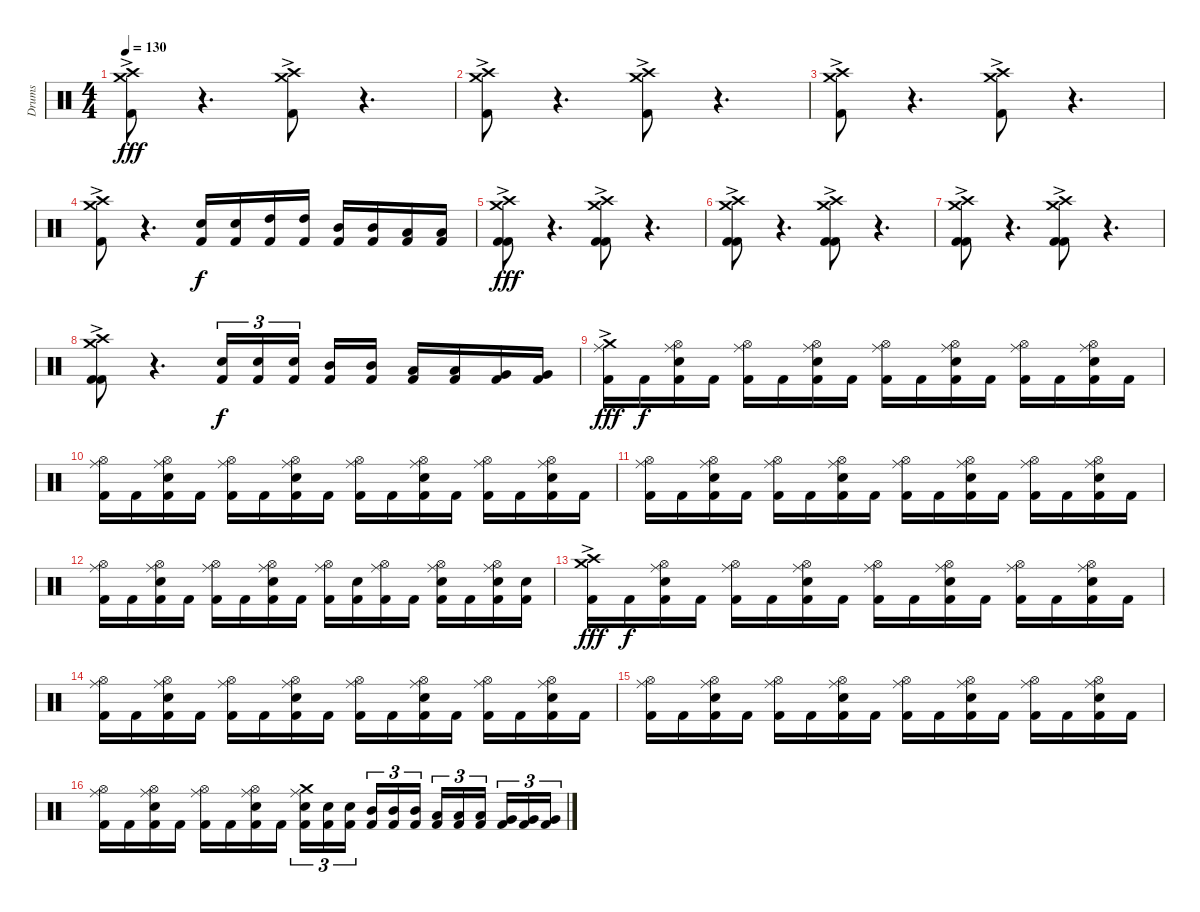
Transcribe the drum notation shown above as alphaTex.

\track ("Drums" "Drums") {instrument percussion}
\staff {score}
\articulation defaults
\ts (4 4)
\tempo 130
\clef neutral
\ks c
("Crash medium (hit)"{ac} "Crash high (hit)" "Kick (hit) 2").8{dy fff volume 15} r.4{d volume 15} ("Crash medium (hit)"{ac} "Crash high (hit)" "Kick (hit) 2").8{volume 15} r.4{d} |
("Crash medium (hit)"{ac} "Crash high (hit)" "Kick (hit) 2").8{volume 15} r.4{d volume 15} ("Crash medium (hit)"{ac} "Crash high (hit)" "Kick (hit) 2").8{volume 15} r.4{d} |
("Crash medium (hit)"{ac} "Crash high (hit)" "Kick (hit) 2").8{volume 15} r.4{d volume 15} ("Crash medium (hit)"{ac} "Crash high (hit)" "Kick (hit) 2").8{volume 15} r.4{d} |
("Crash medium (hit)"{ac} "Crash high (hit)"{ac} "Kick (hit) 2").8{volume 15} r.4{d volume 15} ("Snare (hit) 2" "Kick (hit) 2").16{dy f volume 15} ("Snare (hit) 2" "Kick (hit) 2").16 ("High Tom (hit)" "Kick (hit) 2").16 ("High Tom (hit)" "Kick (hit) 2").16 ("Mid Tom (hit)" "Kick (hit) 2").16 ("Mid Tom (hit)" "Kick (hit) 2").16 ("Low Tom (hit)" "Kick (hit) 2").16 ("Low Tom (hit)" "Kick (hit) 2").16 |
("Crash medium (hit)"{ac} "Crash high (hit)" "Kick (hit) 2" "Kick (hit) 2").8{dy fff volume 15} r.4{d volume 15} ("Crash medium (hit)"{ac} "Crash high (hit)" "Kick (hit) 2" "Kick (hit) 2").8{volume 15} r.4{d} |
("Crash medium (hit)"{ac} "Crash high (hit)" "Kick (hit) 2" "Kick (hit) 2").8{volume 15} r.4{d volume 15} ("Crash medium (hit)"{ac} "Crash high (hit)" "Kick (hit) 2" "Kick (hit) 2").8{volume 15} r.4{d} |
("Crash medium (hit)"{ac} "Crash high (hit)" "Kick (hit) 2" "Kick (hit) 2").8{volume 15} r.4{d volume 15} ("Crash medium (hit)"{ac} "Crash high (hit)" "Kick (hit) 2" "Kick (hit) 2").8{volume 15} r.4{d} |
("Crash medium (hit)"{ac} "Crash high (hit)" "Kick (hit) 2" "Kick (hit) 2").8{volume 15} r.4{d volume 15} ("Snare (hit) 2" "Kick (hit) 2").16{tu (3 2) dy f volume 15} ("Snare (hit) 2" "Kick (hit) 2").16{tu (3 2)} ("Snare (hit) 2" "Kick (hit) 2").16{tu (3 2)} ("Mid Tom (hit)" "Kick (hit) 2").16 ("Mid Tom (hit)" "Kick (hit) 2").16 ("Low Tom (hit)" "Kick (hit) 2").16 ("Low Tom (hit)" "Kick (hit) 2").16 ("Very Low Tom (hit)" "Kick (hit) 2").16 ("Very Low Tom (hit)" "Kick (hit) 2").16 |
("Crash medium (hit)"{ac} "Ride (middle)" "Kick (hit) 2").16{dy fff} "Kick (hit) 2".16{dy f} ("Hi-Hat (open)" "Ride (middle)" "Snare (hit) 2" "Kick (hit) 2").16 "Kick (hit) 2".16 ("Hi-Hat (open)" "Ride (middle)" "Kick (hit) 2").16 "Kick (hit) 2".16 ("Hi-Hat (open)" "Ride (middle)" "Snare (hit) 2" "Kick (hit) 2").16 "Kick (hit) 2".16 ("Hi-Hat (open)" "Ride (middle)" "Kick (hit) 2").16 "Kick (hit) 2".16 ("Hi-Hat (open)" "Ride (middle)" "Snare (hit) 2" "Kick (hit) 2").16 "Kick (hit) 2".16 ("Hi-Hat (open)" "Ride (middle)" "Kick (hit) 2").16 "Kick (hit) 2".16 ("Hi-Hat (open)" "Ride (middle)" "Snare (hit) 2" "Kick (hit) 2").16 "Kick (hit) 2".16 |
("Hi-Hat (open)" "Ride (middle)" "Kick (hit) 2").16 "Kick (hit) 2".16 ("Hi-Hat (open)" "Ride (middle)" "Snare (hit) 2" "Kick (hit) 2").16 "Kick (hit) 2".16 ("Hi-Hat (open)" "Ride (middle)" "Kick (hit) 2").16 "Kick (hit) 2".16 ("Hi-Hat (open)" "Ride (middle)" "Snare (hit) 2" "Kick (hit) 2").16 "Kick (hit) 2".16 ("Hi-Hat (open)" "Ride (middle)" "Kick (hit) 2").16 "Kick (hit) 2".16 ("Hi-Hat (open)" "Ride (middle)" "Snare (hit) 2" "Kick (hit) 2").16 "Kick (hit) 2".16 ("Hi-Hat (open)" "Ride (middle)" "Kick (hit) 2").16 "Kick (hit) 2".16 ("Hi-Hat (open)" "Ride (middle)" "Snare (hit) 2" "Kick (hit) 2").16 "Kick (hit) 2".16 |
("Hi-Hat (open)" "Ride (middle)" "Kick (hit) 2").16 "Kick (hit) 2".16 ("Hi-Hat (open)" "Ride (middle)" "Snare (hit) 2" "Kick (hit) 2").16 "Kick (hit) 2".16 ("Hi-Hat (open)" "Ride (middle)" "Kick (hit) 2").16 "Kick (hit) 2".16 ("Hi-Hat (open)" "Ride (middle)" "Snare (hit) 2" "Kick (hit) 2").16 "Kick (hit) 2".16 ("Hi-Hat (open)" "Ride (middle)" "Kick (hit) 2").16 "Kick (hit) 2".16 ("Hi-Hat (open)" "Ride (middle)" "Snare (hit) 2" "Kick (hit) 2").16 "Kick (hit) 2".16 ("Hi-Hat (open)" "Ride (middle)" "Kick (hit) 2").16 "Kick (hit) 2".16 ("Hi-Hat (open)" "Ride (middle)" "Snare (hit) 2" "Kick (hit) 2").16 "Kick (hit) 2".16 |
("Hi-Hat (open)" "Ride (middle)" "Kick (hit) 2").16 "Kick (hit) 2".16 ("Hi-Hat (open)" "Ride (middle)" "Snare (hit) 2" "Kick (hit) 2").16 "Kick (hit) 2".16 ("Hi-Hat (open)" "Ride (middle)" "Kick (hit) 2").16 "Kick (hit) 2".16 ("Hi-Hat (open)" "Ride (middle)" "Snare (hit) 2" "Kick (hit) 2").16 "Kick (hit) 2".16 ("Hi-Hat (open)" "Ride (middle)" "Kick (hit) 2").16 ("Snare (hit) 2" "Kick (hit) 2").16 ("Hi-Hat (open)" "Ride (middle)" "Kick (hit) 2").16 "Kick (hit) 2".16 ("Hi-Hat (open)" "Ride (middle)" "Snare (hit) 2" "Kick (hit) 2").16 "Kick (hit) 2".16 ("Hi-Hat (open)" "Ride (middle)" "Snare (hit) 2" "Kick (hit) 2").16 ("Snare (hit) 2" "Kick (hit) 2").16 |
("Crash medium (hit)"{ac} "Crash high (hit)"{ac} "Kick (hit) 2").16{dy fff} "Kick (hit) 2".16{dy f} ("Hi-Hat (open)" "Ride (middle)" "Snare (hit) 2" "Kick (hit) 2").16 "Kick (hit) 2".16 ("Hi-Hat (open)" "Ride (middle)" "Kick (hit) 2").16 "Kick (hit) 2".16 ("Hi-Hat (open)" "Ride (middle)" "Snare (hit) 2" "Kick (hit) 2").16 "Kick (hit) 2".16 ("Hi-Hat (open)" "Ride (middle)" "Kick (hit) 2").16 "Kick (hit) 2".16 ("Hi-Hat (open)" "Ride (middle)" "Snare (hit) 2" "Kick (hit) 2").16 "Kick (hit) 2".16 ("Hi-Hat (open)" "Ride (middle)" "Kick (hit) 2").16 "Kick (hit) 2".16 ("Hi-Hat (open)" "Ride (middle)" "Snare (hit) 2" "Kick (hit) 2").16 "Kick (hit) 2".16 |
("Hi-Hat (open)" "Ride (middle)" "Kick (hit) 2").16 "Kick (hit) 2".16 ("Hi-Hat (open)" "Ride (middle)" "Snare (hit) 2" "Kick (hit) 2").16 "Kick (hit) 2".16 ("Hi-Hat (open)" "Ride (middle)" "Kick (hit) 2").16 "Kick (hit) 2".16 ("Hi-Hat (open)" "Ride (middle)" "Snare (hit) 2" "Kick (hit) 2").16 "Kick (hit) 2".16 ("Hi-Hat (open)" "Ride (middle)" "Kick (hit) 2").16 "Kick (hit) 2".16 ("Hi-Hat (open)" "Ride (middle)" "Snare (hit) 2" "Kick (hit) 2").16 "Kick (hit) 2".16 ("Hi-Hat (open)" "Ride (middle)" "Kick (hit) 2").16 "Kick (hit) 2".16 ("Hi-Hat (open)" "Ride (middle)" "Snare (hit) 2" "Kick (hit) 2").16 "Kick (hit) 2".16 |
("Hi-Hat (open)" "Ride (middle)" "Kick (hit) 2").16 "Kick (hit) 2".16 ("Hi-Hat (open)" "Ride (middle)" "Snare (hit) 2" "Kick (hit) 2").16 "Kick (hit) 2".16 ("Hi-Hat (open)" "Ride (middle)" "Kick (hit) 2").16 "Kick (hit) 2".16 ("Hi-Hat (open)" "Ride (middle)" "Snare (hit) 2" "Kick (hit) 2").16 "Kick (hit) 2".16 ("Hi-Hat (open)" "Ride (middle)" "Kick (hit) 2").16 "Kick (hit) 2".16 ("Hi-Hat (open)" "Ride (middle)" "Snare (hit) 2" "Kick (hit) 2").16 "Kick (hit) 2".16 ("Hi-Hat (open)" "Ride (middle)" "Kick (hit) 2").16 "Kick (hit) 2".16 ("Hi-Hat (open)" "Ride (middle)" "Snare (hit) 2" "Kick (hit) 2").16 "Kick (hit) 2".16 |
("Hi-Hat (open)" "Ride (middle)" "Kick (hit) 2").16 "Kick (hit) 2".16 ("Hi-Hat (open)" "Ride (middle)" "Snare (hit) 2" "Kick (hit) 2").16 "Kick (hit) 2".16 ("Hi-Hat (open)" "Ride (middle)" "Kick (hit) 2").16 "Kick (hit) 2".16 ("Hi-Hat (open)" "Ride (middle)" "Snare (hit) 2" "Kick (hit) 2").16 "Kick (hit) 2".16 ("Crash medium (hit)" "Ride (middle)" "Snare (hit) 2" "Kick (hit) 2").16{tu (3 2)} ("Snare (hit) 2" "Kick (hit) 2").16{tu (3 2)} ("Snare (hit) 2" "Kick (hit) 2").16{tu (3 2)} ("Mid Tom (hit)" "Kick (hit) 2").16{tu (3 2)} ("Mid Tom (hit)" "Kick (hit) 2").16{tu (3 2)} ("Mid Tom (hit)" "Kick (hit) 2").16{tu (3 2)} ("Low Tom (hit)" "Kick (hit) 2").16{tu (3 2)} ("Low Tom (hit)" "Kick (hit) 2").16{tu (3 2)} ("Low Tom (hit)" "Kick (hit) 2").16{tu (3 2)} ("Very Low Tom (hit)" "Kick (hit) 2").16{tu (3 2)} ("Very Low Tom (hit)" "Kick (hit) 2").16{tu (3 2)} ("Very Low Tom (hit)" "Kick (hit) 2").16{tu (3 2)}
